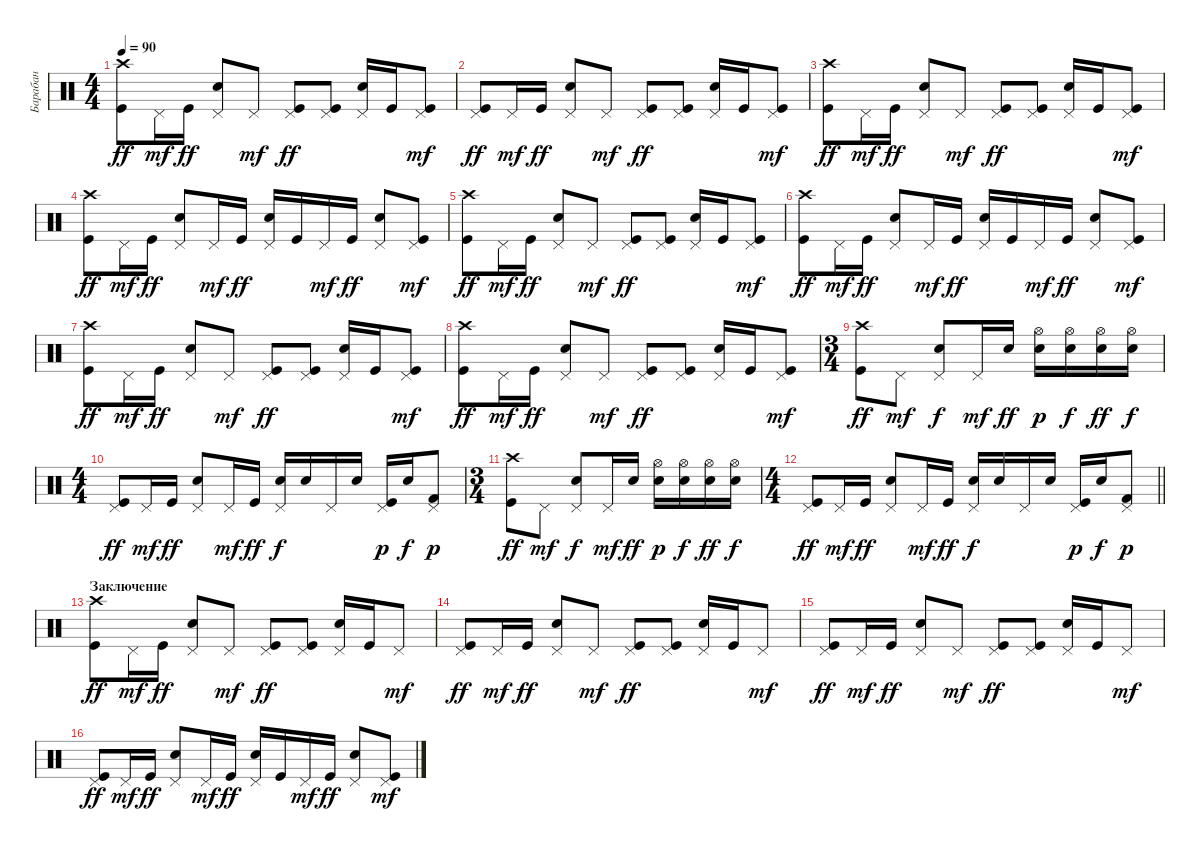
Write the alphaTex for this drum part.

\track ("Барабан" "Барабан") {instrument percussion}
\staff {score}
\articulation defaults
\ts (4 4)
\tempo 90
\clef neutral
\ks c
("Crash high (hit)" "Kick (hit)").8{dy ff} "Pedal Hi-Hat (hit)".16{dy mf} "Kick (hit)".16{dy ff} ("Pedal Hi-Hat (hit)" "Snare (hit) 2").8 "Pedal Hi-Hat (hit)".8{dy mf} ("Pedal Hi-Hat (hit)" "Kick (hit)").8{dy ff} ("Pedal Hi-Hat (hit)" "Kick (hit)").8 ("Pedal Hi-Hat (hit)" "Snare (hit) 2").16 "Kick (hit)".16 ("Pedal Hi-Hat (hit)" "Kick (hit)").8{dy mf} |
("Pedal Hi-Hat (hit)" "Kick (hit)").8{dy ff} "Pedal Hi-Hat (hit)".16{dy mf} "Kick (hit)".16{dy ff} ("Pedal Hi-Hat (hit)" "Snare (hit) 2").8 "Pedal Hi-Hat (hit)".8{dy mf} ("Pedal Hi-Hat (hit)" "Kick (hit)").8{dy ff} ("Pedal Hi-Hat (hit)" "Kick (hit)").8 ("Pedal Hi-Hat (hit)" "Snare (hit) 2").16 "Kick (hit)".16 ("Pedal Hi-Hat (hit)" "Kick (hit)").8{dy mf} |
("Crash high (hit)" "Kick (hit)").8{dy ff} "Pedal Hi-Hat (hit)".16{dy mf} "Kick (hit)".16{dy ff} ("Pedal Hi-Hat (hit)" "Snare (hit) 2").8 "Pedal Hi-Hat (hit)".8{dy mf} ("Pedal Hi-Hat (hit)" "Kick (hit)").8{dy ff} ("Pedal Hi-Hat (hit)" "Kick (hit)").8 ("Pedal Hi-Hat (hit)" "Snare (hit) 2").16 "Kick (hit)".16 ("Pedal Hi-Hat (hit)" "Kick (hit)").8{dy mf} |
("Crash high (hit)" "Kick (hit)").8{dy ff} "Pedal Hi-Hat (hit)".16{dy mf} "Kick (hit)".16{dy ff} ("Pedal Hi-Hat (hit)" "Snare (hit) 2").8 "Pedal Hi-Hat (hit)".16{dy mf} "Kick (hit)".16{dy ff} ("Pedal Hi-Hat (hit)" "Snare (hit) 2").16 "Kick (hit)".16 "Pedal Hi-Hat (hit)".16{dy mf} "Kick (hit)".16{dy ff} ("Pedal Hi-Hat (hit)" "Snare (hit) 2").8 ("Pedal Hi-Hat (hit)" "Kick (hit)").8{dy mf} |
("Crash high (hit)" "Kick (hit)").8{dy ff} "Pedal Hi-Hat (hit)".16{dy mf} "Kick (hit)".16{dy ff} ("Pedal Hi-Hat (hit)" "Snare (hit) 2").8 "Pedal Hi-Hat (hit)".8{dy mf} ("Pedal Hi-Hat (hit)" "Kick (hit)").8{dy ff} ("Pedal Hi-Hat (hit)" "Kick (hit)").8 ("Pedal Hi-Hat (hit)" "Snare (hit) 2").16 "Kick (hit)".16 ("Pedal Hi-Hat (hit)" "Kick (hit)").8{dy mf} |
("Crash high (hit)" "Kick (hit)").8{dy ff} "Pedal Hi-Hat (hit)".16{dy mf} "Kick (hit)".16{dy ff} ("Pedal Hi-Hat (hit)" "Snare (hit) 2").8 "Pedal Hi-Hat (hit)".16{dy mf} "Kick (hit)".16{dy ff} ("Pedal Hi-Hat (hit)" "Snare (hit) 2").16 "Kick (hit)".16 "Pedal Hi-Hat (hit)".16{dy mf} "Kick (hit)".16{dy ff} ("Pedal Hi-Hat (hit)" "Snare (hit) 2").8 ("Pedal Hi-Hat (hit)" "Kick (hit)").8{dy mf} |
("Crash high (hit)" "Kick (hit)").8{dy ff} "Pedal Hi-Hat (hit)".16{dy mf} "Kick (hit)".16{dy ff} ("Pedal Hi-Hat (hit)" "Snare (hit) 2").8 "Pedal Hi-Hat (hit)".8{dy mf} ("Pedal Hi-Hat (hit)" "Kick (hit)").8{dy ff} ("Pedal Hi-Hat (hit)" "Kick (hit)").8 ("Pedal Hi-Hat (hit)" "Snare (hit) 2").16 "Kick (hit)".16 ("Pedal Hi-Hat (hit)" "Kick (hit)").8{dy mf} |
("Crash high (hit)" "Kick (hit)").8{dy ff} "Pedal Hi-Hat (hit)".16{dy mf} "Kick (hit)".16{dy ff} ("Pedal Hi-Hat (hit)" "Snare (hit) 2").8 "Pedal Hi-Hat (hit)".8{dy mf} ("Pedal Hi-Hat (hit)" "Kick (hit)").8{dy ff} ("Pedal Hi-Hat (hit)" "Kick (hit)").8 ("Pedal Hi-Hat (hit)" "Snare (hit) 2").16 "Kick (hit)".16 ("Pedal Hi-Hat (hit)" "Kick (hit)").8{dy mf} |
\ts (3 4)
("Crash high (hit)" "Kick (hit)").8{dy ff} "Pedal Hi-Hat (hit)".8{dy mf} ("Pedal Hi-Hat (hit)" "Snare (hit) 2").8{dy f} "Pedal Hi-Hat (hit)".16{dy mf} "Snare (hit) 2".16{dy ff} ("Hi-Hat (open)" "Snare (hit) 2").16{dy p} ("Hi-Hat (open)" "Snare (hit) 2").16{dy f} ("Hi-Hat (open)" "Snare (hit) 2").16{dy ff} ("Hi-Hat (open)" "Snare (hit) 2").16{dy f} |
\ts (4 4)
("Pedal Hi-Hat (hit)" "Kick (hit)").8{dy ff} "Pedal Hi-Hat (hit)".16{dy mf} "Kick (hit)".16{dy ff} ("Pedal Hi-Hat (hit)" "Snare (hit) 2").8 "Pedal Hi-Hat (hit)".16{dy mf} "Kick (hit)".16{dy ff} ("Pedal Hi-Hat (hit)" "Snare (hit) 2").16{dy f} "Snare (hit) 2".16 "Pedal Hi-Hat (hit)".16 "Snare (hit) 2".16 ("Pedal Hi-Hat (hit)" "Kick (hit)").16{dy p} "Snare (hit) 2".16{dy f} ("Pedal Hi-Hat (hit)" "Kick (hit) 2").8{dy p} |
\ts (3 4)
("Crash high (hit)" "Kick (hit)").8{dy ff} "Pedal Hi-Hat (hit)".8{dy mf} ("Pedal Hi-Hat (hit)" "Snare (hit) 2").8{dy f} "Pedal Hi-Hat (hit)".16{dy mf} "Snare (hit) 2".16{dy ff} ("Hi-Hat (open)" "Snare (hit) 2").16{dy p} ("Hi-Hat (open)" "Snare (hit) 2").16{dy f} ("Hi-Hat (open)" "Snare (hit) 2").16{dy ff} ("Hi-Hat (open)" "Snare (hit) 2").16{dy f} |
\ts (4 4)
\barLineRight lightlight
("Pedal Hi-Hat (hit)" "Kick (hit)").8{dy ff} "Pedal Hi-Hat (hit)".16{dy mf} "Kick (hit)".16{dy ff} ("Pedal Hi-Hat (hit)" "Snare (hit) 2").8 "Pedal Hi-Hat (hit)".16{dy mf} "Kick (hit)".16{dy ff} ("Pedal Hi-Hat (hit)" "Snare (hit) 2").16{dy f} "Snare (hit) 2".16 "Pedal Hi-Hat (hit)".16 "Snare (hit) 2".16 ("Pedal Hi-Hat (hit)" "Kick (hit)").16{dy p} "Snare (hit) 2".16{dy f} ("Pedal Hi-Hat (hit)" "Kick (hit) 2").8{dy p} |
\section ("" "Заключение")
("Crash high (hit)" "Kick (hit)").8{dy ff} "Pedal Hi-Hat (hit)".16{dy mf} "Kick (hit)".16{dy ff} ("Pedal Hi-Hat (hit)" "Snare (hit) 2").8 "Pedal Hi-Hat (hit)".8{dy mf} ("Pedal Hi-Hat (hit)" "Kick (hit)").8{dy ff} ("Pedal Hi-Hat (hit)" "Kick (hit)").8 ("Pedal Hi-Hat (hit)" "Snare (hit) 2").16 "Kick (hit)".16 "Pedal Hi-Hat (hit)".8{dy mf} |
("Pedal Hi-Hat (hit)" "Kick (hit)").8{dy ff} "Pedal Hi-Hat (hit)".16{dy mf} "Kick (hit)".16{dy ff} ("Pedal Hi-Hat (hit)" "Snare (hit) 2").8 "Pedal Hi-Hat (hit)".8{dy mf} ("Pedal Hi-Hat (hit)" "Kick (hit)").8{dy ff} ("Pedal Hi-Hat (hit)" "Kick (hit)").8 ("Pedal Hi-Hat (hit)" "Snare (hit) 2").16 "Kick (hit)".16 "Pedal Hi-Hat (hit)".8{dy mf} |
("Pedal Hi-Hat (hit)" "Kick (hit)").8{dy ff} "Pedal Hi-Hat (hit)".16{dy mf} "Kick (hit)".16{dy ff} ("Pedal Hi-Hat (hit)" "Snare (hit) 2").8 "Pedal Hi-Hat (hit)".8{dy mf} ("Pedal Hi-Hat (hit)" "Kick (hit)").8{dy ff} ("Pedal Hi-Hat (hit)" "Kick (hit)").8 ("Pedal Hi-Hat (hit)" "Snare (hit) 2").16 "Kick (hit)".16 "Pedal Hi-Hat (hit)".8{dy mf} |
("Pedal Hi-Hat (hit)" "Kick (hit)").8{dy ff} "Pedal Hi-Hat (hit)".16{dy mf} "Kick (hit)".16{dy ff} ("Pedal Hi-Hat (hit)" "Snare (hit) 2").8 "Pedal Hi-Hat (hit)".16{dy mf} "Kick (hit)".16{dy ff} ("Pedal Hi-Hat (hit)" "Snare (hit) 2").16 "Kick (hit)".16 "Pedal Hi-Hat (hit)".16{dy mf} "Kick (hit)".16{dy ff} ("Pedal Hi-Hat (hit)" "Snare (hit) 2").8 ("Pedal Hi-Hat (hit)" "Kick (hit)").8{dy mf}
